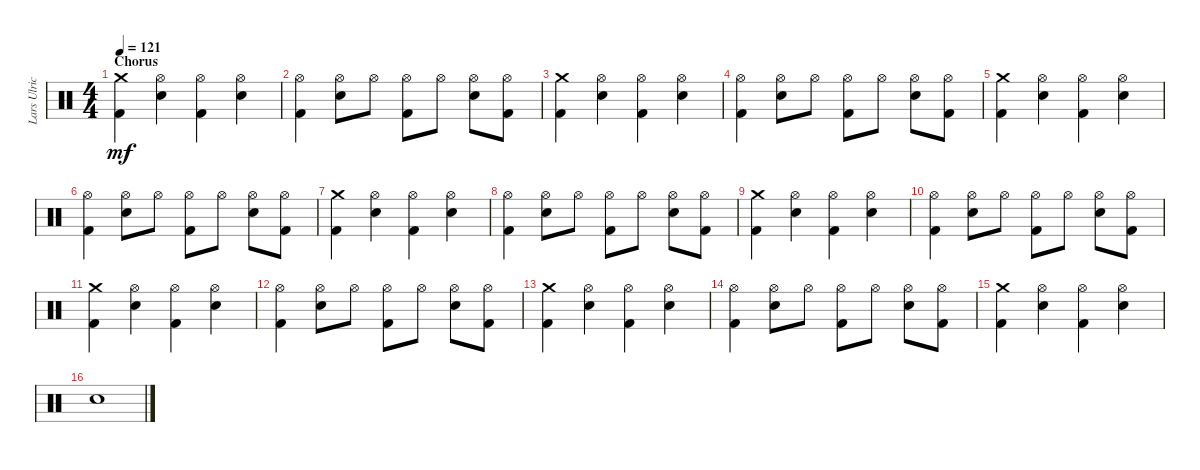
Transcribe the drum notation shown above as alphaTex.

\track ("Lars Ulrich" "Lars Ulric") {instrument percussion}
\staff {score}
\articulation defaults
\ts (4 4)
\section ("" "Chorus")
\tempo 121
\clef neutral
\ks c
("Crash medium (hit)" "Kick (hit) 2").4{dy mf} ("Hi-Hat (open)" "Snare (hit) 2").4 ("Hi-Hat (open)" "Kick (hit) 2").4 ("Hi-Hat (open)" "Snare (hit) 2").4 |
("Hi-Hat (open)" "Kick (hit) 2").4 ("Hi-Hat (open)" "Snare (hit) 2").8 "Hi-Hat (open)".8 ("Hi-Hat (open)" "Kick (hit) 2").8 "Hi-Hat (open)".8 ("Hi-Hat (open)" "Snare (hit) 2").8 ("Hi-Hat (open)" "Kick (hit) 2").8 |
("Crash medium (hit)" "Kick (hit) 2").4 ("Hi-Hat (open)" "Snare (hit) 2").4 ("Hi-Hat (open)" "Kick (hit) 2").4 ("Hi-Hat (open)" "Snare (hit) 2").4 |
("Hi-Hat (open)" "Kick (hit) 2").4 ("Hi-Hat (open)" "Snare (hit) 2").8 "Hi-Hat (open)".8 ("Hi-Hat (open)" "Kick (hit) 2").8 "Hi-Hat (open)".8 ("Hi-Hat (open)" "Snare (hit) 2").8 ("Hi-Hat (open)" "Kick (hit) 2").8 |
("Crash medium (hit)" "Kick (hit) 2").4 ("Hi-Hat (open)" "Snare (hit) 2").4 ("Hi-Hat (open)" "Kick (hit) 2").4 ("Hi-Hat (open)" "Snare (hit) 2").4 |
("Hi-Hat (open)" "Kick (hit) 2").4 ("Hi-Hat (open)" "Snare (hit) 2").8 "Hi-Hat (open)".8 ("Hi-Hat (open)" "Kick (hit) 2").8 "Hi-Hat (open)".8 ("Hi-Hat (open)" "Snare (hit) 2").8 ("Hi-Hat (open)" "Kick (hit) 2").8 |
("Crash medium (hit)" "Kick (hit) 2").4 ("Hi-Hat (open)" "Snare (hit) 2").4 ("Hi-Hat (open)" "Kick (hit) 2").4 ("Hi-Hat (open)" "Snare (hit) 2").4 |
("Hi-Hat (open)" "Kick (hit) 2").4 ("Hi-Hat (open)" "Snare (hit) 2").8 "Hi-Hat (open)".8 ("Hi-Hat (open)" "Kick (hit) 2").8 "Hi-Hat (open)".8 ("Hi-Hat (open)" "Snare (hit) 2").8 ("Hi-Hat (open)" "Kick (hit) 2").8 |
("Crash medium (hit)" "Kick (hit) 2").4 ("Hi-Hat (open)" "Snare (hit) 2").4 ("Hi-Hat (open)" "Kick (hit) 2").4 ("Hi-Hat (open)" "Snare (hit) 2").4 |
("Hi-Hat (open)" "Kick (hit) 2").4 ("Hi-Hat (open)" "Snare (hit) 2").8 "Hi-Hat (open)".8 ("Hi-Hat (open)" "Kick (hit) 2").8 "Hi-Hat (open)".8 ("Hi-Hat (open)" "Snare (hit) 2").8 ("Hi-Hat (open)" "Kick (hit) 2").8 |
("Crash medium (hit)" "Kick (hit) 2").4 ("Hi-Hat (open)" "Snare (hit) 2").4 ("Hi-Hat (open)" "Kick (hit) 2").4 ("Hi-Hat (open)" "Snare (hit) 2").4 |
("Hi-Hat (open)" "Kick (hit) 2").4 ("Hi-Hat (open)" "Snare (hit) 2").8 "Hi-Hat (open)".8 ("Hi-Hat (open)" "Kick (hit) 2").8 "Hi-Hat (open)".8 ("Hi-Hat (open)" "Snare (hit) 2").8 ("Hi-Hat (open)" "Kick (hit) 2").8 |
("Crash medium (hit)" "Kick (hit) 2").4 ("Hi-Hat (open)" "Snare (hit) 2").4 ("Hi-Hat (open)" "Kick (hit) 2").4 ("Hi-Hat (open)" "Snare (hit) 2").4 |
("Hi-Hat (open)" "Kick (hit) 2").4 ("Hi-Hat (open)" "Snare (hit) 2").8 "Hi-Hat (open)".8 ("Hi-Hat (open)" "Kick (hit) 2").8 "Hi-Hat (open)".8 ("Hi-Hat (open)" "Snare (hit) 2").8 ("Hi-Hat (open)" "Kick (hit) 2").8 |
("Crash medium (hit)" "Kick (hit) 2").4 ("Hi-Hat (open)" "Snare (hit) 2").4 ("Hi-Hat (open)" "Kick (hit) 2").4 ("Hi-Hat (open)" "Snare (hit) 2").4 |
"Snare (hit) 2".1
